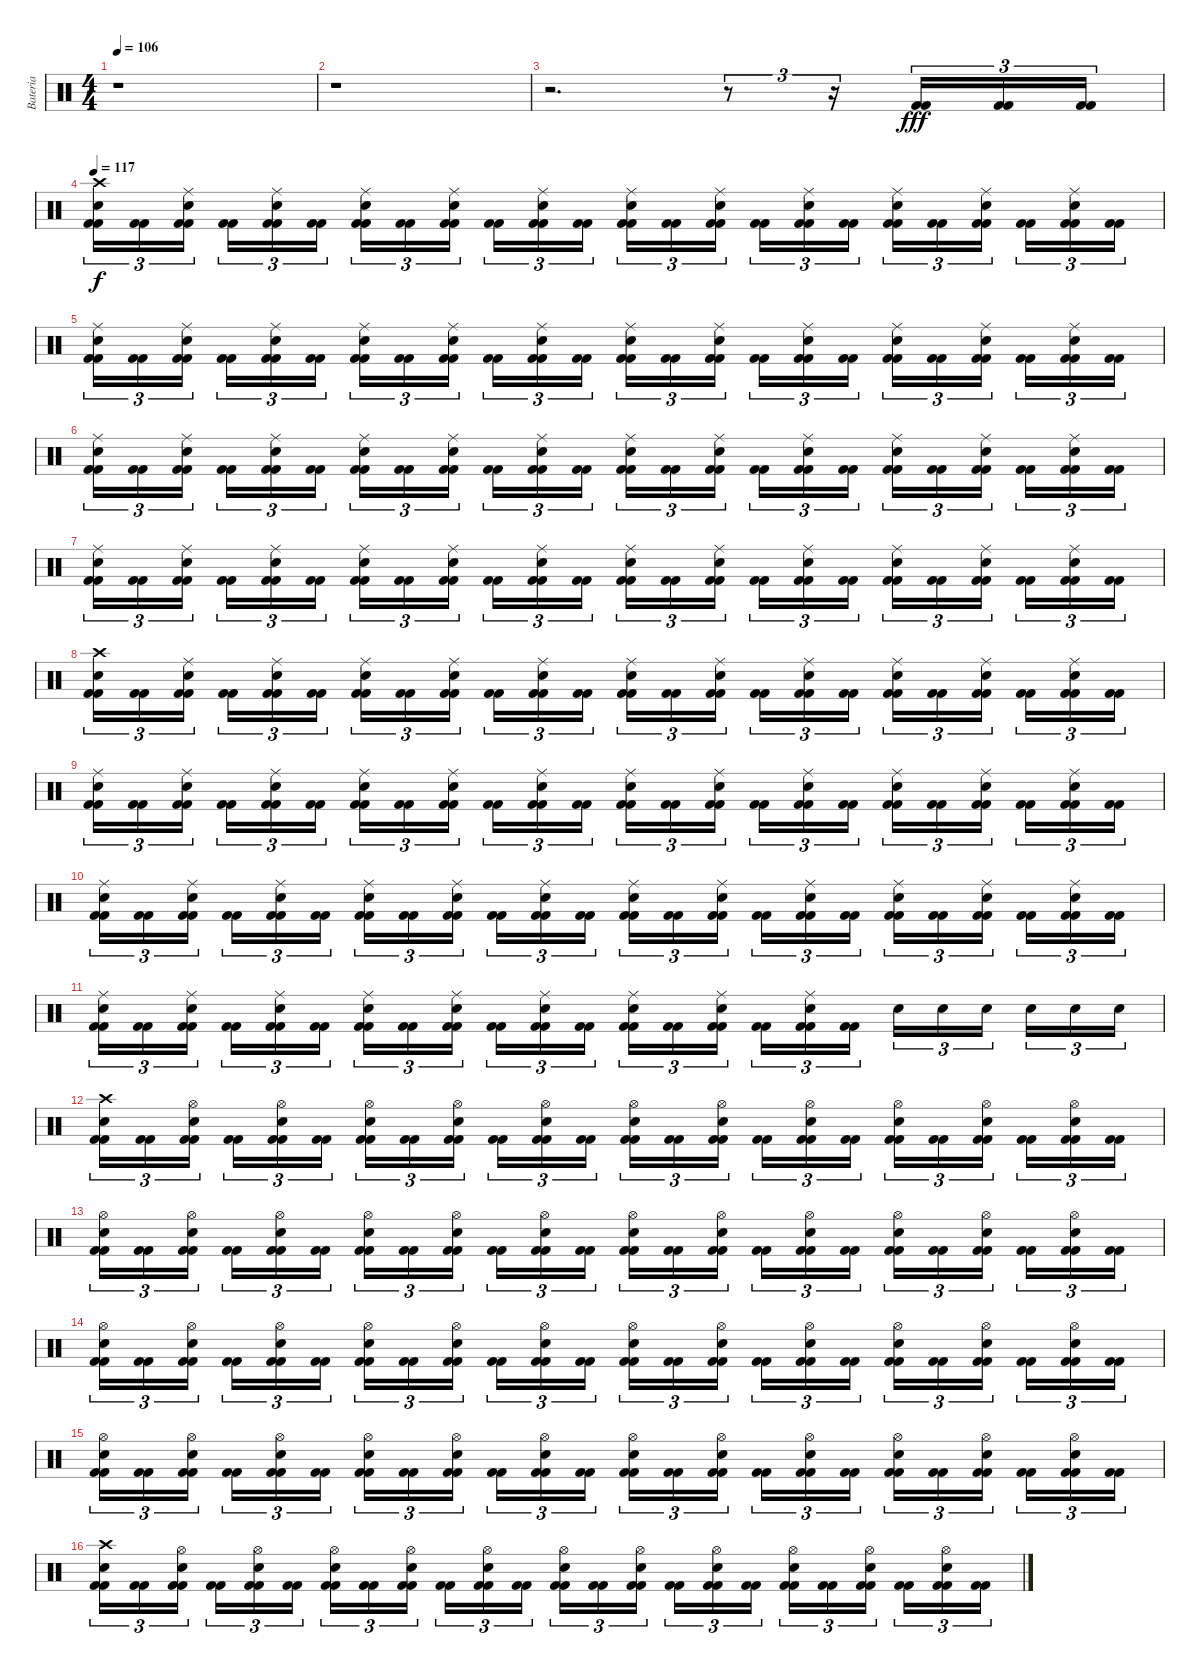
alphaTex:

\track ("Bateria" "Bateria") {instrument percussion}
\staff {score}
\articulation defaults
\ts (4 4)
\tempo 106
\clef neutral
\ks c
r.1{dy f} |
r.1 |
r.2{d} r.8{tu (3 2)} r.16{tu (3 2)} ("Kick (hit) 2" "Kick (hit) 2").16{tu (3 2) dy fff} ("Kick (hit) 2" "Kick (hit) 2").16{tu (3 2)} ("Kick (hit) 2" "Kick (hit) 2").16{tu (3 2)} |
\tempo 117
("Kick (hit) 2" "Kick (hit) 2" "Snare (hit) 2" "Crash high (hit)").16{tu (3 2) dy f} ("Kick (hit) 2" "Kick (hit) 2").16{tu (3 2)} ("Kick (hit) 2" "Kick (hit) 2" "Snare (hit) 2" "Ride (middle)").16{tu (3 2)} ("Kick (hit) 2" "Kick (hit) 2").16{tu (3 2)} ("Kick (hit) 2" "Kick (hit) 2" "Snare (hit) 2" "Ride (middle)").16{tu (3 2)} ("Kick (hit) 2" "Kick (hit) 2").16{tu (3 2)} ("Kick (hit) 2" "Kick (hit) 2" "Snare (hit) 2" "Ride (middle)").16{tu (3 2)} ("Kick (hit) 2" "Kick (hit) 2").16{tu (3 2)} ("Kick (hit) 2" "Kick (hit) 2" "Snare (hit) 2" "Ride (middle)").16{tu (3 2)} ("Kick (hit) 2" "Kick (hit) 2").16{tu (3 2)} ("Kick (hit) 2" "Kick (hit) 2" "Snare (hit) 2" "Ride (middle)").16{tu (3 2)} ("Kick (hit) 2" "Kick (hit) 2").16{tu (3 2)} ("Kick (hit) 2" "Kick (hit) 2" "Snare (hit) 2" "Ride (middle)").16{tu (3 2)} ("Kick (hit) 2" "Kick (hit) 2").16{tu (3 2)} ("Kick (hit) 2" "Kick (hit) 2" "Snare (hit) 2" "Ride (middle)").16{tu (3 2)} ("Kick (hit) 2" "Kick (hit) 2").16{tu (3 2)} ("Kick (hit) 2" "Kick (hit) 2" "Snare (hit) 2" "Ride (middle)").16{tu (3 2)} ("Kick (hit) 2" "Kick (hit) 2").16{tu (3 2)} ("Kick (hit) 2" "Kick (hit) 2" "Snare (hit) 2" "Ride (middle)").16{tu (3 2)} ("Kick (hit) 2" "Kick (hit) 2").16{tu (3 2)} ("Kick (hit) 2" "Kick (hit) 2" "Snare (hit) 2" "Ride (middle)").16{tu (3 2)} ("Kick (hit) 2" "Kick (hit) 2").16{tu (3 2)} ("Kick (hit) 2" "Kick (hit) 2" "Snare (hit) 2" "Ride (middle)").16{tu (3 2)} ("Kick (hit) 2" "Kick (hit) 2").16{tu (3 2)} |
("Kick (hit) 2" "Kick (hit) 2" "Snare (hit) 2" "Ride (middle)").16{tu (3 2)} ("Kick (hit) 2" "Kick (hit) 2").16{tu (3 2)} ("Kick (hit) 2" "Kick (hit) 2" "Snare (hit) 2" "Ride (middle)").16{tu (3 2)} ("Kick (hit) 2" "Kick (hit) 2").16{tu (3 2)} ("Kick (hit) 2" "Kick (hit) 2" "Snare (hit) 2" "Ride (middle)").16{tu (3 2)} ("Kick (hit) 2" "Kick (hit) 2").16{tu (3 2)} ("Kick (hit) 2" "Kick (hit) 2" "Snare (hit) 2" "Ride (middle)").16{tu (3 2)} ("Kick (hit) 2" "Kick (hit) 2").16{tu (3 2)} ("Kick (hit) 2" "Kick (hit) 2" "Snare (hit) 2" "Ride (middle)").16{tu (3 2)} ("Kick (hit) 2" "Kick (hit) 2").16{tu (3 2)} ("Kick (hit) 2" "Kick (hit) 2" "Snare (hit) 2" "Ride (middle)").16{tu (3 2)} ("Kick (hit) 2" "Kick (hit) 2").16{tu (3 2)} ("Kick (hit) 2" "Kick (hit) 2" "Snare (hit) 2" "Ride (middle)").16{tu (3 2)} ("Kick (hit) 2" "Kick (hit) 2").16{tu (3 2)} ("Kick (hit) 2" "Kick (hit) 2" "Snare (hit) 2" "Ride (middle)").16{tu (3 2)} ("Kick (hit) 2" "Kick (hit) 2").16{tu (3 2)} ("Kick (hit) 2" "Kick (hit) 2" "Snare (hit) 2" "Ride (middle)").16{tu (3 2)} ("Kick (hit) 2" "Kick (hit) 2").16{tu (3 2)} ("Kick (hit) 2" "Kick (hit) 2" "Snare (hit) 2" "Ride (middle)").16{tu (3 2)} ("Kick (hit) 2" "Kick (hit) 2").16{tu (3 2)} ("Kick (hit) 2" "Kick (hit) 2" "Snare (hit) 2" "Ride (middle)").16{tu (3 2)} ("Kick (hit) 2" "Kick (hit) 2").16{tu (3 2)} ("Kick (hit) 2" "Kick (hit) 2" "Snare (hit) 2" "Ride (middle)").16{tu (3 2)} ("Kick (hit) 2" "Kick (hit) 2").16{tu (3 2)} |
("Kick (hit) 2" "Kick (hit) 2" "Snare (hit) 2" "Ride (middle)").16{tu (3 2)} ("Kick (hit) 2" "Kick (hit) 2").16{tu (3 2)} ("Kick (hit) 2" "Kick (hit) 2" "Snare (hit) 2" "Ride (middle)").16{tu (3 2)} ("Kick (hit) 2" "Kick (hit) 2").16{tu (3 2)} ("Kick (hit) 2" "Kick (hit) 2" "Snare (hit) 2" "Ride (middle)").16{tu (3 2)} ("Kick (hit) 2" "Kick (hit) 2").16{tu (3 2)} ("Kick (hit) 2" "Kick (hit) 2" "Snare (hit) 2" "Ride (middle)").16{tu (3 2)} ("Kick (hit) 2" "Kick (hit) 2").16{tu (3 2)} ("Kick (hit) 2" "Kick (hit) 2" "Snare (hit) 2" "Ride (middle)").16{tu (3 2)} ("Kick (hit) 2" "Kick (hit) 2").16{tu (3 2)} ("Kick (hit) 2" "Kick (hit) 2" "Snare (hit) 2" "Ride (middle)").16{tu (3 2)} ("Kick (hit) 2" "Kick (hit) 2").16{tu (3 2)} ("Kick (hit) 2" "Kick (hit) 2" "Snare (hit) 2" "Ride (middle)").16{tu (3 2)} ("Kick (hit) 2" "Kick (hit) 2").16{tu (3 2)} ("Kick (hit) 2" "Kick (hit) 2" "Snare (hit) 2" "Ride (middle)").16{tu (3 2)} ("Kick (hit) 2" "Kick (hit) 2").16{tu (3 2)} ("Kick (hit) 2" "Kick (hit) 2" "Snare (hit) 2" "Ride (middle)").16{tu (3 2)} ("Kick (hit) 2" "Kick (hit) 2").16{tu (3 2)} ("Kick (hit) 2" "Kick (hit) 2" "Snare (hit) 2" "Ride (middle)").16{tu (3 2)} ("Kick (hit) 2" "Kick (hit) 2").16{tu (3 2)} ("Kick (hit) 2" "Kick (hit) 2" "Snare (hit) 2" "Ride (middle)").16{tu (3 2)} ("Kick (hit) 2" "Kick (hit) 2").16{tu (3 2)} ("Kick (hit) 2" "Kick (hit) 2" "Snare (hit) 2" "Ride (middle)").16{tu (3 2)} ("Kick (hit) 2" "Kick (hit) 2").16{tu (3 2)} |
("Kick (hit) 2" "Kick (hit) 2" "Snare (hit) 2" "Ride (middle)").16{tu (3 2)} ("Kick (hit) 2" "Kick (hit) 2").16{tu (3 2)} ("Kick (hit) 2" "Kick (hit) 2" "Snare (hit) 2" "Ride (middle)").16{tu (3 2)} ("Kick (hit) 2" "Kick (hit) 2").16{tu (3 2)} ("Kick (hit) 2" "Kick (hit) 2" "Snare (hit) 2" "Ride (middle)").16{tu (3 2)} ("Kick (hit) 2" "Kick (hit) 2").16{tu (3 2)} ("Kick (hit) 2" "Kick (hit) 2" "Snare (hit) 2" "Ride (middle)").16{tu (3 2)} ("Kick (hit) 2" "Kick (hit) 2").16{tu (3 2)} ("Kick (hit) 2" "Kick (hit) 2" "Snare (hit) 2" "Ride (middle)").16{tu (3 2)} ("Kick (hit) 2" "Kick (hit) 2").16{tu (3 2)} ("Kick (hit) 2" "Kick (hit) 2" "Snare (hit) 2" "Ride (middle)").16{tu (3 2)} ("Kick (hit) 2" "Kick (hit) 2").16{tu (3 2)} ("Kick (hit) 2" "Kick (hit) 2" "Snare (hit) 2" "Ride (middle)").16{tu (3 2)} ("Kick (hit) 2" "Kick (hit) 2").16{tu (3 2)} ("Kick (hit) 2" "Kick (hit) 2" "Snare (hit) 2" "Ride (middle)").16{tu (3 2)} ("Kick (hit) 2" "Kick (hit) 2").16{tu (3 2)} ("Kick (hit) 2" "Kick (hit) 2" "Snare (hit) 2" "Ride (middle)").16{tu (3 2)} ("Kick (hit) 2" "Kick (hit) 2").16{tu (3 2)} ("Kick (hit) 2" "Kick (hit) 2" "Snare (hit) 2" "Ride (middle)").16{tu (3 2)} ("Kick (hit) 2" "Kick (hit) 2").16{tu (3 2)} ("Kick (hit) 2" "Kick (hit) 2" "Snare (hit) 2" "Ride (middle)").16{tu (3 2)} ("Kick (hit) 2" "Kick (hit) 2").16{tu (3 2)} ("Kick (hit) 2" "Kick (hit) 2" "Snare (hit) 2" "Ride (middle)").16{tu (3 2)} ("Kick (hit) 2" "Kick (hit) 2").16{tu (3 2)} |
("Kick (hit) 2" "Kick (hit) 2" "Snare (hit) 2" "Crash high (hit)").16{tu (3 2)} ("Kick (hit) 2" "Kick (hit) 2").16{tu (3 2)} ("Kick (hit) 2" "Kick (hit) 2" "Snare (hit) 2" "Ride (middle)").16{tu (3 2)} ("Kick (hit) 2" "Kick (hit) 2").16{tu (3 2)} ("Kick (hit) 2" "Kick (hit) 2" "Snare (hit) 2" "Ride (middle)").16{tu (3 2)} ("Kick (hit) 2" "Kick (hit) 2").16{tu (3 2)} ("Kick (hit) 2" "Kick (hit) 2" "Snare (hit) 2" "Ride (middle)").16{tu (3 2)} ("Kick (hit) 2" "Kick (hit) 2").16{tu (3 2)} ("Kick (hit) 2" "Kick (hit) 2" "Snare (hit) 2" "Ride (middle)").16{tu (3 2)} ("Kick (hit) 2" "Kick (hit) 2").16{tu (3 2)} ("Kick (hit) 2" "Kick (hit) 2" "Snare (hit) 2" "Ride (middle)").16{tu (3 2)} ("Kick (hit) 2" "Kick (hit) 2").16{tu (3 2)} ("Kick (hit) 2" "Kick (hit) 2" "Snare (hit) 2" "Ride (middle)").16{tu (3 2)} ("Kick (hit) 2" "Kick (hit) 2").16{tu (3 2)} ("Kick (hit) 2" "Kick (hit) 2" "Snare (hit) 2" "Ride (middle)").16{tu (3 2)} ("Kick (hit) 2" "Kick (hit) 2").16{tu (3 2)} ("Kick (hit) 2" "Kick (hit) 2" "Snare (hit) 2" "Ride (middle)").16{tu (3 2)} ("Kick (hit) 2" "Kick (hit) 2").16{tu (3 2)} ("Kick (hit) 2" "Kick (hit) 2" "Snare (hit) 2" "Ride (middle)").16{tu (3 2)} ("Kick (hit) 2" "Kick (hit) 2").16{tu (3 2)} ("Kick (hit) 2" "Kick (hit) 2" "Snare (hit) 2" "Ride (middle)").16{tu (3 2)} ("Kick (hit) 2" "Kick (hit) 2").16{tu (3 2)} ("Kick (hit) 2" "Kick (hit) 2" "Snare (hit) 2" "Ride (middle)").16{tu (3 2)} ("Kick (hit) 2" "Kick (hit) 2").16{tu (3 2)} |
("Kick (hit) 2" "Kick (hit) 2" "Snare (hit) 2" "Ride (middle)").16{tu (3 2)} ("Kick (hit) 2" "Kick (hit) 2").16{tu (3 2)} ("Kick (hit) 2" "Kick (hit) 2" "Snare (hit) 2" "Ride (middle)").16{tu (3 2)} ("Kick (hit) 2" "Kick (hit) 2").16{tu (3 2)} ("Kick (hit) 2" "Kick (hit) 2" "Snare (hit) 2" "Ride (middle)").16{tu (3 2)} ("Kick (hit) 2" "Kick (hit) 2").16{tu (3 2)} ("Kick (hit) 2" "Kick (hit) 2" "Snare (hit) 2" "Ride (middle)").16{tu (3 2)} ("Kick (hit) 2" "Kick (hit) 2").16{tu (3 2)} ("Kick (hit) 2" "Kick (hit) 2" "Snare (hit) 2" "Ride (middle)").16{tu (3 2)} ("Kick (hit) 2" "Kick (hit) 2").16{tu (3 2)} ("Kick (hit) 2" "Kick (hit) 2" "Snare (hit) 2" "Ride (middle)").16{tu (3 2)} ("Kick (hit) 2" "Kick (hit) 2").16{tu (3 2)} ("Kick (hit) 2" "Kick (hit) 2" "Snare (hit) 2" "Ride (middle)").16{tu (3 2)} ("Kick (hit) 2" "Kick (hit) 2").16{tu (3 2)} ("Kick (hit) 2" "Kick (hit) 2" "Snare (hit) 2" "Ride (middle)").16{tu (3 2)} ("Kick (hit) 2" "Kick (hit) 2").16{tu (3 2)} ("Kick (hit) 2" "Kick (hit) 2" "Snare (hit) 2" "Ride (middle)").16{tu (3 2)} ("Kick (hit) 2" "Kick (hit) 2").16{tu (3 2)} ("Kick (hit) 2" "Kick (hit) 2" "Snare (hit) 2" "Ride (middle)").16{tu (3 2)} ("Kick (hit) 2" "Kick (hit) 2").16{tu (3 2)} ("Kick (hit) 2" "Kick (hit) 2" "Snare (hit) 2" "Ride (middle)").16{tu (3 2)} ("Kick (hit) 2" "Kick (hit) 2").16{tu (3 2)} ("Kick (hit) 2" "Kick (hit) 2" "Snare (hit) 2" "Ride (middle)").16{tu (3 2)} ("Kick (hit) 2" "Kick (hit) 2").16{tu (3 2)} |
("Kick (hit) 2" "Kick (hit) 2" "Snare (hit) 2" "Ride (middle)").16{tu (3 2)} ("Kick (hit) 2" "Kick (hit) 2").16{tu (3 2)} ("Kick (hit) 2" "Kick (hit) 2" "Snare (hit) 2" "Ride (middle)").16{tu (3 2)} ("Kick (hit) 2" "Kick (hit) 2").16{tu (3 2)} ("Kick (hit) 2" "Kick (hit) 2" "Snare (hit) 2" "Ride (middle)").16{tu (3 2)} ("Kick (hit) 2" "Kick (hit) 2").16{tu (3 2)} ("Kick (hit) 2" "Kick (hit) 2" "Snare (hit) 2" "Ride (middle)").16{tu (3 2)} ("Kick (hit) 2" "Kick (hit) 2").16{tu (3 2)} ("Kick (hit) 2" "Kick (hit) 2" "Snare (hit) 2" "Ride (middle)").16{tu (3 2)} ("Kick (hit) 2" "Kick (hit) 2").16{tu (3 2)} ("Kick (hit) 2" "Kick (hit) 2" "Snare (hit) 2" "Ride (middle)").16{tu (3 2)} ("Kick (hit) 2" "Kick (hit) 2").16{tu (3 2)} ("Kick (hit) 2" "Kick (hit) 2" "Snare (hit) 2" "Ride (middle)").16{tu (3 2)} ("Kick (hit) 2" "Kick (hit) 2").16{tu (3 2)} ("Kick (hit) 2" "Kick (hit) 2" "Snare (hit) 2" "Ride (middle)").16{tu (3 2)} ("Kick (hit) 2" "Kick (hit) 2").16{tu (3 2)} ("Kick (hit) 2" "Kick (hit) 2" "Snare (hit) 2" "Ride (middle)").16{tu (3 2)} ("Kick (hit) 2" "Kick (hit) 2").16{tu (3 2)} ("Kick (hit) 2" "Kick (hit) 2" "Snare (hit) 2" "Ride (middle)").16{tu (3 2)} ("Kick (hit) 2" "Kick (hit) 2").16{tu (3 2)} ("Kick (hit) 2" "Kick (hit) 2" "Snare (hit) 2" "Ride (middle)").16{tu (3 2)} ("Kick (hit) 2" "Kick (hit) 2").16{tu (3 2)} ("Kick (hit) 2" "Kick (hit) 2" "Snare (hit) 2" "Ride (middle)").16{tu (3 2)} ("Kick (hit) 2" "Kick (hit) 2").16{tu (3 2)} |
("Kick (hit) 2" "Kick (hit) 2" "Snare (hit) 2" "Ride (middle)").16{tu (3 2)} ("Kick (hit) 2" "Kick (hit) 2").16{tu (3 2)} ("Kick (hit) 2" "Kick (hit) 2" "Snare (hit) 2" "Ride (middle)").16{tu (3 2)} ("Kick (hit) 2" "Kick (hit) 2").16{tu (3 2)} ("Kick (hit) 2" "Kick (hit) 2" "Snare (hit) 2" "Ride (middle)").16{tu (3 2)} ("Kick (hit) 2" "Kick (hit) 2").16{tu (3 2)} ("Kick (hit) 2" "Kick (hit) 2" "Snare (hit) 2" "Ride (middle)").16{tu (3 2)} ("Kick (hit) 2" "Kick (hit) 2").16{tu (3 2)} ("Kick (hit) 2" "Kick (hit) 2" "Snare (hit) 2" "Ride (middle)").16{tu (3 2)} ("Kick (hit) 2" "Kick (hit) 2").16{tu (3 2)} ("Kick (hit) 2" "Kick (hit) 2" "Snare (hit) 2" "Ride (middle)").16{tu (3 2)} ("Kick (hit) 2" "Kick (hit) 2").16{tu (3 2)} ("Kick (hit) 2" "Kick (hit) 2" "Snare (hit) 2" "Ride (middle)").16{tu (3 2)} ("Kick (hit) 2" "Kick (hit) 2").16{tu (3 2)} ("Kick (hit) 2" "Kick (hit) 2" "Snare (hit) 2" "Ride (middle)").16{tu (3 2)} ("Kick (hit) 2" "Kick (hit) 2").16{tu (3 2)} ("Kick (hit) 2" "Kick (hit) 2" "Snare (hit) 2" "Ride (middle)").16{tu (3 2)} ("Kick (hit) 2" "Kick (hit) 2").16{tu (3 2)} "Snare (hit) 2".16{tu (3 2)} "Snare (hit) 2".16{tu (3 2)} "Snare (hit) 2".16{tu (3 2)} "Snare (hit) 2".16{tu (3 2)} "Snare (hit) 2".16{tu (3 2)} "Snare (hit) 2".16{tu (3 2)} |
("Kick (hit) 2" "Kick (hit) 2" "Snare (hit) 2" "Crash high (hit)").16{tu (3 2)} ("Kick (hit) 2" "Kick (hit) 2").16{tu (3 2)} ("Kick (hit) 2" "Kick (hit) 2" "Snare (hit) 2" "Hi-Hat (open)").16{tu (3 2)} ("Kick (hit) 2" "Kick (hit) 2").16{tu (3 2)} ("Kick (hit) 2" "Kick (hit) 2" "Snare (hit) 2" "Hi-Hat (open)").16{tu (3 2)} ("Kick (hit) 2" "Kick (hit) 2").16{tu (3 2)} ("Kick (hit) 2" "Kick (hit) 2" "Snare (hit) 2" "Hi-Hat (open)").16{tu (3 2)} ("Kick (hit) 2" "Kick (hit) 2").16{tu (3 2)} ("Kick (hit) 2" "Kick (hit) 2" "Snare (hit) 2" "Hi-Hat (open)").16{tu (3 2)} ("Kick (hit) 2" "Kick (hit) 2").16{tu (3 2)} ("Kick (hit) 2" "Kick (hit) 2" "Snare (hit) 2" "Hi-Hat (open)").16{tu (3 2)} ("Kick (hit) 2" "Kick (hit) 2").16{tu (3 2)} ("Kick (hit) 2" "Kick (hit) 2" "Snare (hit) 2" "Hi-Hat (open)").16{tu (3 2)} ("Kick (hit) 2" "Kick (hit) 2").16{tu (3 2)} ("Kick (hit) 2" "Kick (hit) 2" "Snare (hit) 2" "Hi-Hat (open)").16{tu (3 2)} ("Kick (hit) 2" "Kick (hit) 2").16{tu (3 2)} ("Kick (hit) 2" "Kick (hit) 2" "Snare (hit) 2" "Hi-Hat (open)").16{tu (3 2)} ("Kick (hit) 2" "Kick (hit) 2").16{tu (3 2)} ("Kick (hit) 2" "Kick (hit) 2" "Snare (hit) 2" "Hi-Hat (open)").16{tu (3 2)} ("Kick (hit) 2" "Kick (hit) 2").16{tu (3 2)} ("Kick (hit) 2" "Kick (hit) 2" "Snare (hit) 2" "Hi-Hat (open)").16{tu (3 2)} ("Kick (hit) 2" "Kick (hit) 2").16{tu (3 2)} ("Kick (hit) 2" "Kick (hit) 2" "Snare (hit) 2" "Hi-Hat (open)").16{tu (3 2)} ("Kick (hit) 2" "Kick (hit) 2").16{tu (3 2)} |
("Kick (hit) 2" "Kick (hit) 2" "Snare (hit) 2" "Hi-Hat (open)").16{tu (3 2)} ("Kick (hit) 2" "Kick (hit) 2").16{tu (3 2)} ("Kick (hit) 2" "Kick (hit) 2" "Snare (hit) 2" "Hi-Hat (open)").16{tu (3 2)} ("Kick (hit) 2" "Kick (hit) 2").16{tu (3 2)} ("Kick (hit) 2" "Kick (hit) 2" "Snare (hit) 2" "Hi-Hat (open)").16{tu (3 2)} ("Kick (hit) 2" "Kick (hit) 2").16{tu (3 2)} ("Kick (hit) 2" "Kick (hit) 2" "Snare (hit) 2" "Hi-Hat (open)").16{tu (3 2)} ("Kick (hit) 2" "Kick (hit) 2").16{tu (3 2)} ("Kick (hit) 2" "Kick (hit) 2" "Snare (hit) 2" "Hi-Hat (open)").16{tu (3 2)} ("Kick (hit) 2" "Kick (hit) 2").16{tu (3 2)} ("Kick (hit) 2" "Kick (hit) 2" "Snare (hit) 2" "Hi-Hat (open)").16{tu (3 2)} ("Kick (hit) 2" "Kick (hit) 2").16{tu (3 2)} ("Kick (hit) 2" "Kick (hit) 2" "Snare (hit) 2" "Hi-Hat (open)").16{tu (3 2)} ("Kick (hit) 2" "Kick (hit) 2").16{tu (3 2)} ("Kick (hit) 2" "Kick (hit) 2" "Snare (hit) 2" "Hi-Hat (open)").16{tu (3 2)} ("Kick (hit) 2" "Kick (hit) 2").16{tu (3 2)} ("Kick (hit) 2" "Kick (hit) 2" "Snare (hit) 2" "Hi-Hat (open)").16{tu (3 2)} ("Kick (hit) 2" "Kick (hit) 2").16{tu (3 2)} ("Kick (hit) 2" "Kick (hit) 2" "Snare (hit) 2" "Hi-Hat (open)").16{tu (3 2)} ("Kick (hit) 2" "Kick (hit) 2").16{tu (3 2)} ("Kick (hit) 2" "Kick (hit) 2" "Snare (hit) 2" "Hi-Hat (open)").16{tu (3 2)} ("Kick (hit) 2" "Kick (hit) 2").16{tu (3 2)} ("Kick (hit) 2" "Kick (hit) 2" "Snare (hit) 2" "Hi-Hat (open)").16{tu (3 2)} ("Kick (hit) 2" "Kick (hit) 2").16{tu (3 2)} |
("Kick (hit) 2" "Kick (hit) 2" "Snare (hit) 2" "Hi-Hat (open)").16{tu (3 2)} ("Kick (hit) 2" "Kick (hit) 2").16{tu (3 2)} ("Kick (hit) 2" "Kick (hit) 2" "Snare (hit) 2" "Hi-Hat (open)").16{tu (3 2)} ("Kick (hit) 2" "Kick (hit) 2").16{tu (3 2)} ("Kick (hit) 2" "Kick (hit) 2" "Snare (hit) 2" "Hi-Hat (open)").16{tu (3 2)} ("Kick (hit) 2" "Kick (hit) 2").16{tu (3 2)} ("Kick (hit) 2" "Kick (hit) 2" "Snare (hit) 2" "Hi-Hat (open)").16{tu (3 2)} ("Kick (hit) 2" "Kick (hit) 2").16{tu (3 2)} ("Kick (hit) 2" "Kick (hit) 2" "Snare (hit) 2" "Hi-Hat (open)").16{tu (3 2)} ("Kick (hit) 2" "Kick (hit) 2").16{tu (3 2)} ("Kick (hit) 2" "Kick (hit) 2" "Snare (hit) 2" "Hi-Hat (open)").16{tu (3 2)} ("Kick (hit) 2" "Kick (hit) 2").16{tu (3 2)} ("Kick (hit) 2" "Kick (hit) 2" "Snare (hit) 2" "Hi-Hat (open)").16{tu (3 2)} ("Kick (hit) 2" "Kick (hit) 2").16{tu (3 2)} ("Kick (hit) 2" "Kick (hit) 2" "Snare (hit) 2" "Hi-Hat (open)").16{tu (3 2)} ("Kick (hit) 2" "Kick (hit) 2").16{tu (3 2)} ("Kick (hit) 2" "Kick (hit) 2" "Snare (hit) 2" "Hi-Hat (open)").16{tu (3 2)} ("Kick (hit) 2" "Kick (hit) 2").16{tu (3 2)} ("Kick (hit) 2" "Kick (hit) 2" "Snare (hit) 2" "Hi-Hat (open)").16{tu (3 2)} ("Kick (hit) 2" "Kick (hit) 2").16{tu (3 2)} ("Kick (hit) 2" "Kick (hit) 2" "Snare (hit) 2" "Hi-Hat (open)").16{tu (3 2)} ("Kick (hit) 2" "Kick (hit) 2").16{tu (3 2)} ("Kick (hit) 2" "Kick (hit) 2" "Snare (hit) 2" "Hi-Hat (open)").16{tu (3 2)} ("Kick (hit) 2" "Kick (hit) 2").16{tu (3 2)} |
("Kick (hit) 2" "Kick (hit) 2" "Snare (hit) 2" "Hi-Hat (open)").16{tu (3 2)} ("Kick (hit) 2" "Kick (hit) 2").16{tu (3 2)} ("Kick (hit) 2" "Kick (hit) 2" "Snare (hit) 2" "Hi-Hat (open)").16{tu (3 2)} ("Kick (hit) 2" "Kick (hit) 2").16{tu (3 2)} ("Kick (hit) 2" "Kick (hit) 2" "Snare (hit) 2" "Hi-Hat (open)").16{tu (3 2)} ("Kick (hit) 2" "Kick (hit) 2").16{tu (3 2)} ("Kick (hit) 2" "Kick (hit) 2" "Snare (hit) 2" "Hi-Hat (open)").16{tu (3 2)} ("Kick (hit) 2" "Kick (hit) 2").16{tu (3 2)} ("Kick (hit) 2" "Kick (hit) 2" "Snare (hit) 2" "Hi-Hat (open)").16{tu (3 2)} ("Kick (hit) 2" "Kick (hit) 2").16{tu (3 2)} ("Kick (hit) 2" "Kick (hit) 2" "Snare (hit) 2" "Hi-Hat (open)").16{tu (3 2)} ("Kick (hit) 2" "Kick (hit) 2").16{tu (3 2)} ("Kick (hit) 2" "Kick (hit) 2" "Snare (hit) 2" "Hi-Hat (open)").16{tu (3 2)} ("Kick (hit) 2" "Kick (hit) 2").16{tu (3 2)} ("Kick (hit) 2" "Kick (hit) 2" "Snare (hit) 2" "Hi-Hat (open)").16{tu (3 2)} ("Kick (hit) 2" "Kick (hit) 2").16{tu (3 2)} ("Kick (hit) 2" "Kick (hit) 2" "Snare (hit) 2" "Hi-Hat (open)").16{tu (3 2)} ("Kick (hit) 2" "Kick (hit) 2").16{tu (3 2)} ("Kick (hit) 2" "Kick (hit) 2" "Snare (hit) 2" "Hi-Hat (open)").16{tu (3 2)} ("Kick (hit) 2" "Kick (hit) 2").16{tu (3 2)} ("Kick (hit) 2" "Kick (hit) 2" "Snare (hit) 2" "Hi-Hat (open)").16{tu (3 2)} ("Kick (hit) 2" "Kick (hit) 2").16{tu (3 2)} ("Kick (hit) 2" "Kick (hit) 2" "Snare (hit) 2" "Hi-Hat (open)").16{tu (3 2)} ("Kick (hit) 2" "Kick (hit) 2").16{tu (3 2)} |
("Kick (hit) 2" "Kick (hit) 2" "Snare (hit) 2" "Crash high (hit)").16{tu (3 2)} ("Kick (hit) 2" "Kick (hit) 2").16{tu (3 2)} ("Kick (hit) 2" "Kick (hit) 2" "Snare (hit) 2" "Hi-Hat (open)").16{tu (3 2)} ("Kick (hit) 2" "Kick (hit) 2").16{tu (3 2)} ("Kick (hit) 2" "Kick (hit) 2" "Snare (hit) 2" "Hi-Hat (open)").16{tu (3 2)} ("Kick (hit) 2" "Kick (hit) 2").16{tu (3 2)} ("Kick (hit) 2" "Kick (hit) 2" "Snare (hit) 2" "Hi-Hat (open)").16{tu (3 2)} ("Kick (hit) 2" "Kick (hit) 2").16{tu (3 2)} ("Kick (hit) 2" "Kick (hit) 2" "Snare (hit) 2" "Hi-Hat (open)").16{tu (3 2)} ("Kick (hit) 2" "Kick (hit) 2").16{tu (3 2)} ("Kick (hit) 2" "Kick (hit) 2" "Snare (hit) 2" "Hi-Hat (open)").16{tu (3 2)} ("Kick (hit) 2" "Kick (hit) 2").16{tu (3 2)} ("Kick (hit) 2" "Kick (hit) 2" "Snare (hit) 2" "Hi-Hat (open)").16{tu (3 2)} ("Kick (hit) 2" "Kick (hit) 2").16{tu (3 2)} ("Kick (hit) 2" "Kick (hit) 2" "Snare (hit) 2" "Hi-Hat (open)").16{tu (3 2)} ("Kick (hit) 2" "Kick (hit) 2").16{tu (3 2)} ("Kick (hit) 2" "Kick (hit) 2" "Snare (hit) 2" "Hi-Hat (open)").16{tu (3 2)} ("Kick (hit) 2" "Kick (hit) 2").16{tu (3 2)} ("Kick (hit) 2" "Kick (hit) 2" "Snare (hit) 2" "Hi-Hat (open)").16{tu (3 2)} ("Kick (hit) 2" "Kick (hit) 2").16{tu (3 2)} ("Kick (hit) 2" "Kick (hit) 2" "Snare (hit) 2" "Hi-Hat (open)").16{tu (3 2)} ("Kick (hit) 2" "Kick (hit) 2").16{tu (3 2)} ("Kick (hit) 2" "Kick (hit) 2" "Snare (hit) 2" "Hi-Hat (open)").16{tu (3 2)} ("Kick (hit) 2" "Kick (hit) 2").16{tu (3 2)}
